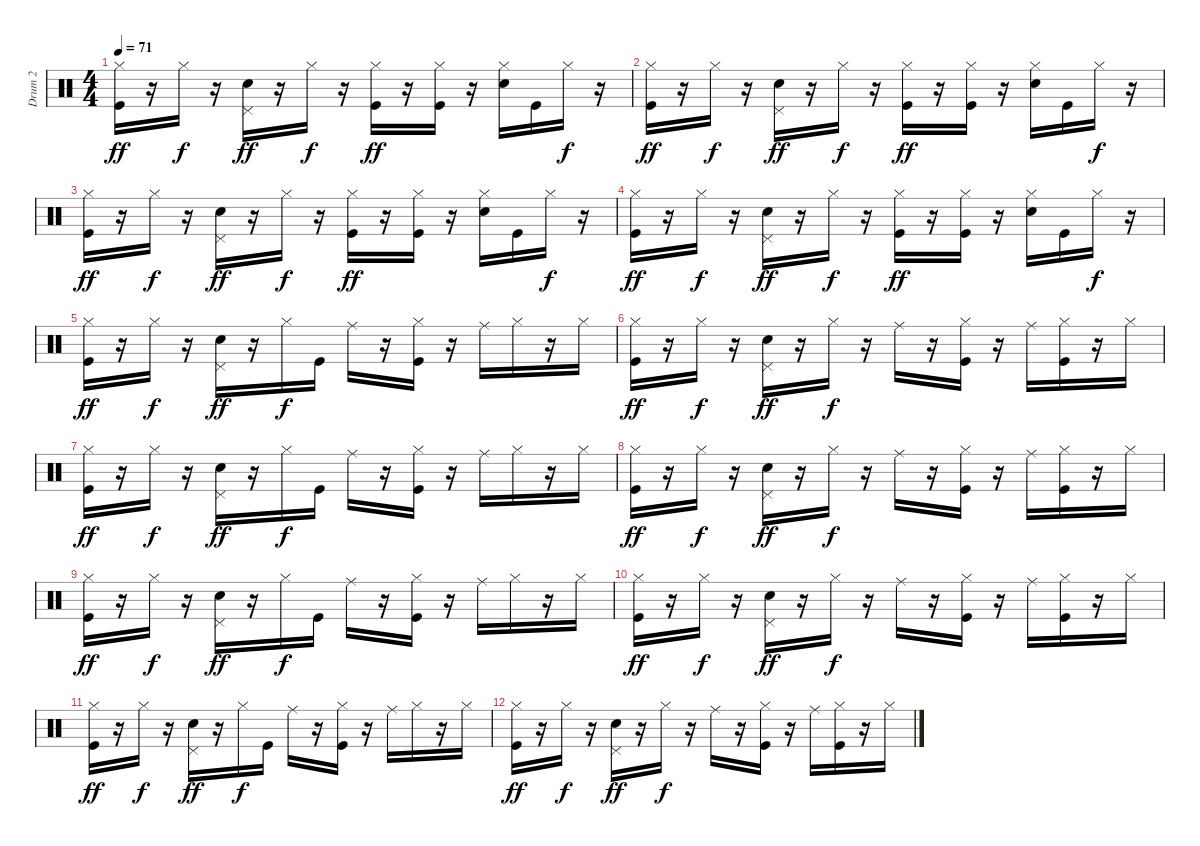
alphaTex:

\track ("Drum 2" "Drum 2") {instrument percussion}
\staff {score}
\articulation defaults
\ts (4 4)
\tempo 71
\clef neutral
\ks c
("Hi-Hat (closed)" "Kick (hit)").16{dy ff} r.16 "Hi-Hat (closed)".16{dy f} r.16 ("Pedal Hi-Hat (hit)" "Snare (hit) 2").16{dy ff} r.16 "Hi-Hat (closed)".16{dy f} r.16 ("Hi-Hat (closed)" "Kick (hit)").16{dy ff} r.16 ("Hi-Hat (closed)" "Kick (hit)").16 r.16 ("Hi-Hat (closed)" "Snare (hit) 2").16 "Kick (hit)".16 "Hi-Hat (closed)".16{dy f} r.16 |
("Hi-Hat (closed)" "Kick (hit)").16{dy ff} r.16 "Hi-Hat (closed)".16{dy f} r.16 ("Pedal Hi-Hat (hit)" "Snare (hit) 2").16{dy ff} r.16 "Hi-Hat (closed)".16{dy f} r.16 ("Hi-Hat (closed)" "Kick (hit)").16{dy ff} r.16 ("Hi-Hat (closed)" "Kick (hit)").16 r.16 ("Hi-Hat (closed)" "Snare (hit) 2").16 "Kick (hit)".16 "Hi-Hat (closed)".16{dy f} r.16 |
("Hi-Hat (closed)" "Kick (hit)").16{dy ff} r.16 "Hi-Hat (closed)".16{dy f} r.16 ("Pedal Hi-Hat (hit)" "Snare (hit) 2").16{dy ff} r.16 "Hi-Hat (closed)".16{dy f} r.16 ("Hi-Hat (closed)" "Kick (hit)").16{dy ff} r.16 ("Hi-Hat (closed)" "Kick (hit)").16 r.16 ("Hi-Hat (closed)" "Snare (hit) 2").16 "Kick (hit)".16 "Hi-Hat (closed)".16{dy f} r.16 |
("Hi-Hat (closed)" "Kick (hit)").16{dy ff} r.16 "Hi-Hat (closed)".16{dy f} r.16 ("Pedal Hi-Hat (hit)" "Snare (hit) 2").16{dy ff} r.16 "Hi-Hat (closed)".16{dy f} r.16 ("Hi-Hat (closed)" "Kick (hit)").16{dy ff} r.16 ("Hi-Hat (closed)" "Kick (hit)").16 r.16 ("Hi-Hat (closed)" "Snare (hit) 2").16 "Kick (hit)".16 "Hi-Hat (closed)".16{dy f} r.16 |
("Hi-Hat (closed)" "Kick (hit)").16{dy ff} r.16 "Hi-Hat (closed)".16{dy f} r.16 ("Pedal Hi-Hat (hit)" "Snare (hit) 2").16{dy ff} r.16 "Hi-Hat (closed)".16{dy f} "Kick (hit)".16 "Ride (middle)".16 r.16 ("Hi-Hat (closed)" "Kick (hit)").16 r.16 "Ride (middle)".16 "Hi-Hat (closed)".16 r.16 "Hi-Hat (closed)".16 |
("Hi-Hat (closed)" "Kick (hit)").16{dy ff} r.16 "Hi-Hat (closed)".16{dy f} r.16 ("Pedal Hi-Hat (hit)" "Snare (hit) 2").16{dy ff} r.16 "Hi-Hat (closed)".16{dy f} r.16 "Ride (middle)".16 r.16 ("Hi-Hat (closed)" "Kick (hit)").16 r.16 "Ride (middle)".16 ("Hi-Hat (closed)" "Kick (hit)").16 r.16 "Hi-Hat (closed)".16 |
("Hi-Hat (closed)" "Kick (hit)").16{dy ff} r.16 "Hi-Hat (closed)".16{dy f} r.16 ("Pedal Hi-Hat (hit)" "Snare (hit) 2").16{dy ff} r.16 "Hi-Hat (closed)".16{dy f} "Kick (hit)".16 "Ride (middle)".16 r.16 ("Hi-Hat (closed)" "Kick (hit)").16 r.16 "Ride (middle)".16 "Hi-Hat (closed)".16 r.16 "Hi-Hat (closed)".16 |
("Hi-Hat (closed)" "Kick (hit)").16{dy ff} r.16 "Hi-Hat (closed)".16{dy f} r.16 ("Pedal Hi-Hat (hit)" "Snare (hit) 2").16{dy ff} r.16 "Hi-Hat (closed)".16{dy f} r.16 "Ride (middle)".16 r.16 ("Hi-Hat (closed)" "Kick (hit)").16 r.16 "Ride (middle)".16 ("Hi-Hat (closed)" "Kick (hit)").16 r.16 "Hi-Hat (closed)".16 |
("Hi-Hat (closed)" "Kick (hit)").16{dy ff} r.16 "Hi-Hat (closed)".16{dy f} r.16 ("Pedal Hi-Hat (hit)" "Snare (hit) 2").16{dy ff} r.16 "Hi-Hat (closed)".16{dy f} "Kick (hit)".16 "Ride (middle)".16 r.16 ("Hi-Hat (closed)" "Kick (hit)").16 r.16 "Ride (middle)".16 "Hi-Hat (closed)".16 r.16 "Hi-Hat (closed)".16 |
("Hi-Hat (closed)" "Kick (hit)").16{dy ff} r.16 "Hi-Hat (closed)".16{dy f} r.16 ("Pedal Hi-Hat (hit)" "Snare (hit) 2").16{dy ff} r.16 "Hi-Hat (closed)".16{dy f} r.16 "Ride (middle)".16 r.16 ("Hi-Hat (closed)" "Kick (hit)").16 r.16 "Ride (middle)".16 ("Hi-Hat (closed)" "Kick (hit)").16 r.16 "Hi-Hat (closed)".16 |
("Hi-Hat (closed)" "Kick (hit)").16{dy ff} r.16 "Hi-Hat (closed)".16{dy f} r.16 ("Pedal Hi-Hat (hit)" "Snare (hit) 2").16{dy ff} r.16 "Hi-Hat (closed)".16{dy f} "Kick (hit)".16 "Ride (middle)".16 r.16 ("Hi-Hat (closed)" "Kick (hit)").16 r.16 "Ride (middle)".16 "Hi-Hat (closed)".16 r.16 "Hi-Hat (closed)".16 |
("Hi-Hat (closed)" "Kick (hit)").16{dy ff} r.16 "Hi-Hat (closed)".16{dy f} r.16 ("Pedal Hi-Hat (hit)" "Snare (hit) 2").16{dy ff} r.16 "Hi-Hat (closed)".16{dy f} r.16 "Ride (middle)".16 r.16 ("Hi-Hat (closed)" "Kick (hit)").16 r.16 "Ride (middle)".16 ("Hi-Hat (closed)" "Kick (hit)").16 r.16 "Hi-Hat (closed)".16
